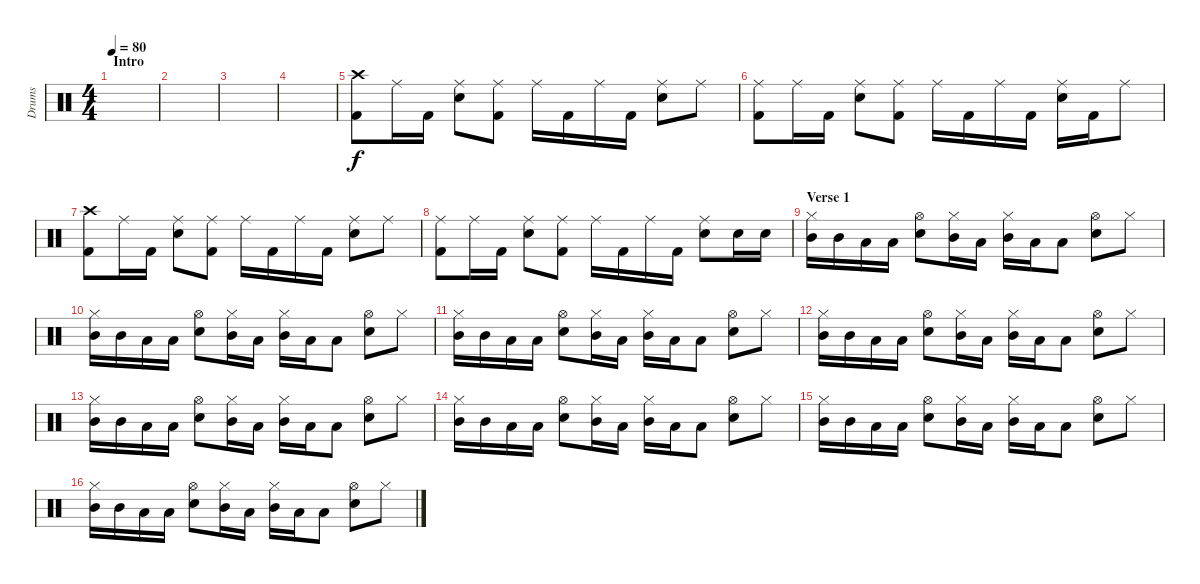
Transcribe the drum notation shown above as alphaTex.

\track ("Drums" "Drums") {instrument percussion}
\staff {score}
\articulation defaults
\ts (4 4)
\section ("" "Intro")
\tempo 80
\clef neutral
\ks c
|
|
|
|
("Crash high (hit)" "Kick (hit) 2").8 "Ride (middle)".16 "Kick (hit) 2".16 ("Ride (middle)" "Snare (hit) 2").8 ("Ride (middle)" "Kick (hit) 2").8 "Ride (middle)".16 "Kick (hit) 2".16 "Ride (middle)".16 "Kick (hit) 2".16 ("Ride (middle)" "Snare (hit) 2").8 "Ride (middle)".8 |
("Ride (middle)" "Kick (hit) 2").8 "Ride (middle)".16 "Kick (hit) 2".16 ("Ride (middle)" "Snare (hit) 2").8 ("Ride (middle)" "Kick (hit) 2").8 "Ride (middle)".16 "Kick (hit) 2".16 "Ride (middle)".16 "Kick (hit) 2".16 ("Ride (middle)" "Snare (hit) 2").16 "Kick (hit) 2".16 "Ride (middle)".8 |
("Crash high (hit)" "Kick (hit) 2").8 "Ride (middle)".16 "Kick (hit) 2".16 ("Ride (middle)" "Snare (hit) 2").8 ("Ride (middle)" "Kick (hit) 2").8 "Ride (middle)".16 "Kick (hit) 2".16 "Ride (middle)".16 "Kick (hit) 2".16 ("Ride (middle)" "Snare (hit) 2").8 "Ride (middle)".8 |
("Ride (middle)" "Kick (hit) 2").8 "Ride (middle)".16 "Kick (hit) 2".16 ("Ride (middle)" "Snare (hit) 2").8 ("Ride (middle)" "Kick (hit) 2").8 "Ride (middle)".16 "Kick (hit) 2".16 "Ride (middle)".16 "Kick (hit) 2".16 ("Ride (middle)" "Snare (hit) 2").8 "Snare (hit) 2".16 "Snare (hit) 2".16 |
\section ("" "Verse 1")
("Hi-Hat (closed)" "Mid Tom (hit)").16 "Mid Tom (hit)".16 "Low Floor Tom (hit)".16 "Low Floor Tom (hit)".16 ("Hi-Hat (open)" "Snare (hit) 2").8 ("Hi-Hat (closed)" "Mid Tom (hit)").16 "Low Floor Tom (hit)".16 ("Hi-Hat (closed)" "Mid Tom (hit)").16 "Low Floor Tom (hit)".16 "Low Floor Tom (hit)".8 ("Hi-Hat (open)" "Snare (hit) 2").8 "Hi-Hat (closed)".8 |
("Hi-Hat (closed)" "Mid Tom (hit)").16 "Mid Tom (hit)".16 "Low Floor Tom (hit)".16 "Low Floor Tom (hit)".16 ("Hi-Hat (open)" "Snare (hit) 2").8 ("Hi-Hat (closed)" "Mid Tom (hit)").16 "Low Floor Tom (hit)".16 ("Hi-Hat (closed)" "Mid Tom (hit)").16 "Low Floor Tom (hit)".16 "Low Floor Tom (hit)".8 ("Hi-Hat (open)" "Snare (hit) 2").8 "Hi-Hat (closed)".8 |
("Hi-Hat (closed)" "Mid Tom (hit)").16 "Mid Tom (hit)".16 "Low Floor Tom (hit)".16 "Low Floor Tom (hit)".16 ("Hi-Hat (open)" "Snare (hit) 2").8 ("Hi-Hat (closed)" "Mid Tom (hit)").16 "Low Floor Tom (hit)".16 ("Hi-Hat (closed)" "Mid Tom (hit)").16 "Low Floor Tom (hit)".16 "Low Floor Tom (hit)".8 ("Hi-Hat (open)" "Snare (hit) 2").8 "Hi-Hat (closed)".8 |
("Hi-Hat (closed)" "Mid Tom (hit)").16 "Mid Tom (hit)".16 "Low Floor Tom (hit)".16 "Low Floor Tom (hit)".16 ("Hi-Hat (open)" "Snare (hit) 2").8 ("Hi-Hat (closed)" "Mid Tom (hit)").16 "Low Floor Tom (hit)".16 ("Hi-Hat (closed)" "Mid Tom (hit)").16 "Low Floor Tom (hit)".16 "Low Floor Tom (hit)".8 ("Hi-Hat (open)" "Snare (hit) 2").8 "Hi-Hat (closed)".8 |
("Hi-Hat (closed)" "Mid Tom (hit)").16 "Mid Tom (hit)".16 "Low Floor Tom (hit)".16 "Low Floor Tom (hit)".16 ("Hi-Hat (open)" "Snare (hit) 2").8 ("Hi-Hat (closed)" "Mid Tom (hit)").16 "Low Floor Tom (hit)".16 ("Hi-Hat (closed)" "Mid Tom (hit)").16 "Low Floor Tom (hit)".16 "Low Floor Tom (hit)".8 ("Hi-Hat (open)" "Snare (hit) 2").8 "Hi-Hat (closed)".8 |
("Hi-Hat (closed)" "Mid Tom (hit)").16 "Mid Tom (hit)".16 "Low Floor Tom (hit)".16 "Low Floor Tom (hit)".16 ("Hi-Hat (open)" "Snare (hit) 2").8 ("Hi-Hat (closed)" "Mid Tom (hit)").16 "Low Floor Tom (hit)".16 ("Hi-Hat (closed)" "Mid Tom (hit)").16 "Low Floor Tom (hit)".16 "Low Floor Tom (hit)".8 ("Hi-Hat (open)" "Snare (hit) 2").8 "Hi-Hat (closed)".8 |
("Hi-Hat (closed)" "Mid Tom (hit)").16 "Mid Tom (hit)".16 "Low Floor Tom (hit)".16 "Low Floor Tom (hit)".16 ("Hi-Hat (open)" "Snare (hit) 2").8 ("Hi-Hat (closed)" "Mid Tom (hit)").16 "Low Floor Tom (hit)".16 ("Hi-Hat (closed)" "Mid Tom (hit)").16 "Low Floor Tom (hit)".16 "Low Floor Tom (hit)".8 ("Hi-Hat (open)" "Snare (hit) 2").8 "Hi-Hat (closed)".8 |
("Hi-Hat (closed)" "Mid Tom (hit)").16 "Mid Tom (hit)".16 "Low Floor Tom (hit)".16 "Low Floor Tom (hit)".16 ("Hi-Hat (open)" "Snare (hit) 2").8 ("Hi-Hat (closed)" "Mid Tom (hit)").16 "Low Floor Tom (hit)".16 ("Hi-Hat (closed)" "Mid Tom (hit)").16 "Low Floor Tom (hit)".16 "Low Floor Tom (hit)".8 ("Hi-Hat (open)" "Snare (hit) 2").8 "Hi-Hat (closed)".8
